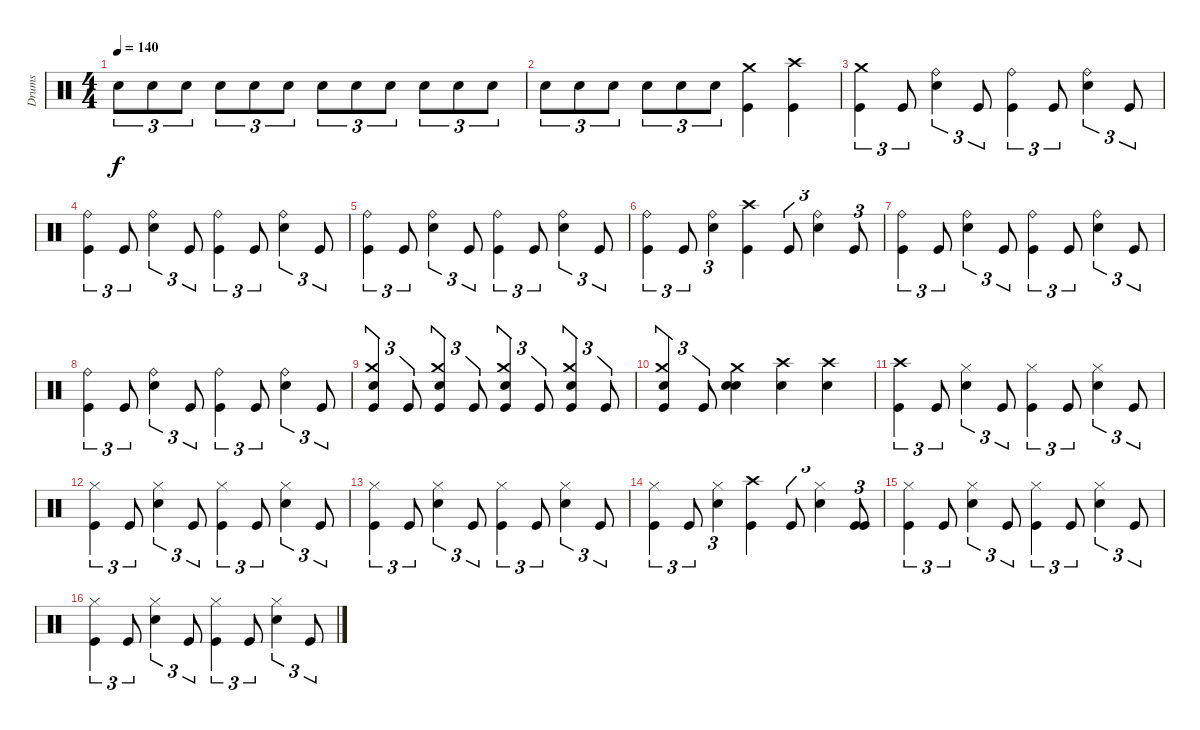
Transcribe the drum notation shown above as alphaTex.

\track ("Drums" "Drums") {instrument percussion}
\staff {score}
\articulation defaults
\ts (4 4)
\tempo 140
\clef neutral
\ks c "Snare (hit) 2".8{tu (3 2) dy f} "Snare (hit) 2".8{tu (3 2)} "Snare (hit) 2".8{tu (3 2)} "Snare (hit) 2".8{tu (3 2)} "Snare (hit) 2".8{tu (3 2)} "Snare (hit) 2".8{tu (3 2)} "Snare (hit) 2".8{tu (3 2)} "Snare (hit) 2".8{tu (3 2)} "Snare (hit) 2".8{tu (3 2)} "Snare (hit) 2".8{tu (3 2)} "Snare (hit) 2".8{tu (3 2)} "Snare (hit) 2".8{tu (3 2)}
|
"Snare (hit) 2".8{tu (3 2)} "Snare (hit) 2".8{tu (3 2)} "Snare (hit) 2".8{tu (3 2)} "Snare (hit) 2".8{tu (3 2)} "Snare (hit) 2".8{tu (3 2)} "Snare (hit) 2".8{tu (3 2)} ("Crash medium (hit)" "Kick (hit)").4 ("Crash high (hit)" "Kick (hit)").4 |
("Crash medium (hit)" "Kick (hit)").4{tu (3 2)} "Kick (hit)".8{tu (3 2)} ("Ride (bell)" "Snare (hit) 2").4{tu (3 2)} "Kick (hit)".8{tu (3 2)} ("Ride (bell)" "Kick (hit)").4{tu (3 2)} "Kick (hit)".8{tu (3 2)} ("Ride (bell)" "Snare (hit) 2").4{tu (3 2)} "Kick (hit)".8{tu (3 2)} |
("Ride (bell)" "Kick (hit)").4{tu (3 2)} "Kick (hit)".8{tu (3 2)} ("Ride (bell)" "Snare (hit) 2").4{tu (3 2)} "Kick (hit)".8{tu (3 2)} ("Ride (bell)" "Kick (hit)").4{tu (3 2)} "Kick (hit)".8{tu (3 2)} ("Ride (bell)" "Snare (hit) 2").4{tu (3 2)} "Kick (hit)".8{tu (3 2)} |
("Ride (bell)" "Kick (hit)").4{tu (3 2)} "Kick (hit)".8{tu (3 2)} ("Ride (bell)" "Snare (hit) 2").4{tu (3 2)} "Kick (hit)".8{tu (3 2)} ("Ride (bell)" "Kick (hit)").4{tu (3 2)} "Kick (hit)".8{tu (3 2)} ("Ride (bell)" "Snare (hit) 2").4{tu (3 2)} "Kick (hit)".8{tu (3 2)} |
("Ride (bell)" "Kick (hit)").4{tu (3 2)} "Kick (hit)".8{tu (3 2)} ("Ride (bell)" "Snare (hit) 2").4{tu (3 2)} ("Crash high (hit)" "Kick (hit)").4 "Kick (hit)".8{tu (3 2)} ("Ride (bell)" "Snare (hit) 2").4{tu (3 2)} "Kick (hit)".8{tu (3 2)} |
("Ride (bell)" "Kick (hit)").4{tu (3 2)} "Kick (hit)".8{tu (3 2)} ("Ride (bell)" "Snare (hit) 2").4{tu (3 2)} "Kick (hit)".8{tu (3 2)} ("Ride (bell)" "Kick (hit)").4{tu (3 2)} "Kick (hit)".8{tu (3 2)} ("Ride (bell)" "Snare (hit) 2").4{tu (3 2)} "Kick (hit)".8{tu (3 2)} |
("Ride (bell)" "Kick (hit)").4{tu (3 2)} "Kick (hit)".8{tu (3 2)} ("Ride (bell)" "Snare (hit) 2").4{tu (3 2)} "Kick (hit)".8{tu (3 2)} ("Ride (bell)" "Kick (hit)").4{tu (3 2)} "Kick (hit)".8{tu (3 2)} ("Ride (bell)" "Snare (hit) 2").4{tu (3 2)} "Kick (hit)".8{tu (3 2)} |
("Crash medium (hit)" "Snare (hit) 2" "Kick (hit)").4{tu (3 2)} "Kick (hit)".8{tu (3 2)} ("Crash medium (hit)" "Snare (hit) 2" "Kick (hit)").4{tu (3 2)} "Kick (hit)".8{tu (3 2)} ("Crash medium (hit)" "Snare (hit) 2" "Kick (hit)").4{tu (3 2)} "Kick (hit)".8{tu (3 2)} ("Crash medium (hit)" "Snare (hit) 2" "Kick (hit)").4{tu (3 2)} "Kick (hit)".8{tu (3 2)} |
("Crash medium (hit)" "Snare (hit) 2" "Kick (hit)").4{tu (3 2)} "Kick (hit)".8{tu (3 2)} ("Crash medium (hit)" "Snare (hit) 2" "Snare (hit) 2").4 ("Crash high (hit)" "Snare (hit) 2").4 ("Crash high (hit)" "Snare (hit) 2").4 |
("Crash high (hit)" "Kick (hit)").4{tu (3 2)} "Kick (hit)".8{tu (3 2)} ("Hi-Hat (closed)" "Snare (hit) 2").4{tu (3 2)} "Kick (hit)".8{tu (3 2)} ("Hi-Hat (closed)" "Kick (hit)").4{tu (3 2)} "Kick (hit)".8{tu (3 2)} ("Hi-Hat (closed)" "Snare (hit) 2").4{tu (3 2)} "Kick (hit)".8{tu (3 2)} |
("Hi-Hat (closed)" "Kick (hit)").4{tu (3 2)} "Kick (hit)".8{tu (3 2)} ("Hi-Hat (closed)" "Snare (hit) 2").4{tu (3 2)} "Kick (hit)".8{tu (3 2)} ("Hi-Hat (closed)" "Kick (hit)").4{tu (3 2)} "Kick (hit)".8{tu (3 2)} ("Hi-Hat (closed)" "Snare (hit) 2").4{tu (3 2)} "Kick (hit)".8{tu (3 2)} |
("Hi-Hat (closed)" "Kick (hit)").4{tu (3 2)} "Kick (hit)".8{tu (3 2)} ("Hi-Hat (closed)" "Snare (hit) 2").4{tu (3 2)} "Kick (hit)".8{tu (3 2)} ("Hi-Hat (closed)" "Kick (hit)").4{tu (3 2)} "Kick (hit)".8{tu (3 2)} ("Hi-Hat (closed)" "Snare (hit) 2").4{tu (3 2)} "Kick (hit)".8{tu (3 2)} |
("Hi-Hat (closed)" "Kick (hit)").4{tu (3 2)} "Kick (hit)".8{tu (3 2)} ("Hi-Hat (closed)" "Snare (hit) 2").4{tu (3 2)} ("Crash high (hit)" "Kick (hit)").4 "Kick (hit)".8{tu (3 2)} ("Hi-Hat (closed)" "Snare (hit) 2").4{tu (3 2)} ("Kick (hit)" "Kick (hit)").8{tu (3 2)} |
("Hi-Hat (closed)" "Kick (hit)").4{tu (3 2)} "Kick (hit)".8{tu (3 2)} ("Hi-Hat (closed)" "Snare (hit) 2").4{tu (3 2)} "Kick (hit)".8{tu (3 2)} ("Hi-Hat (closed)" "Kick (hit)").4{tu (3 2)} "Kick (hit)".8{tu (3 2)} ("Hi-Hat (closed)" "Snare (hit) 2").4{tu (3 2)} "Kick (hit)".8{tu (3 2)} |
("Hi-Hat (closed)" "Kick (hit)").4{tu (3 2)} "Kick (hit)".8{tu (3 2)} ("Hi-Hat (closed)" "Snare (hit) 2").4{tu (3 2)} "Kick (hit)".8{tu (3 2)} ("Hi-Hat (closed)" "Kick (hit)").4{tu (3 2)} "Kick (hit)".8{tu (3 2)} ("Hi-Hat (closed)" "Snare (hit) 2").4{tu (3 2)} "Kick (hit)".8{tu (3 2)}
